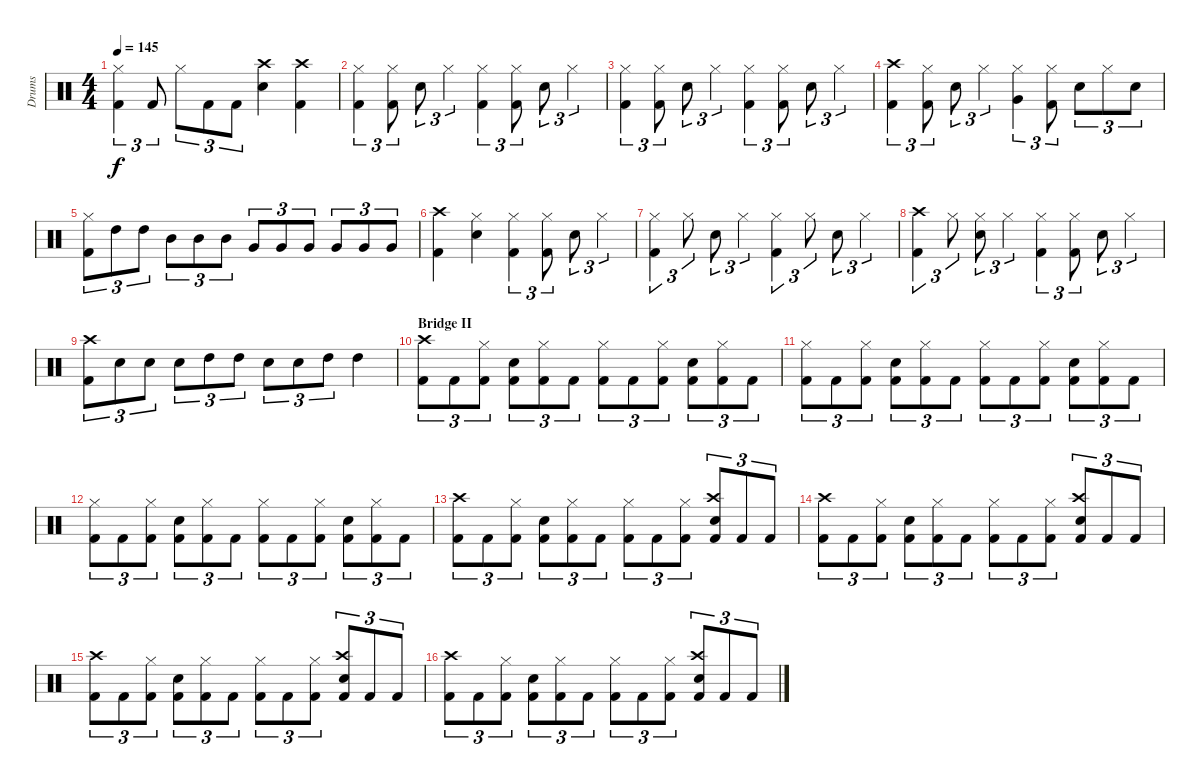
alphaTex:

\track ("Drums" "Drums") {instrument percussion}
\staff {score}
\articulation defaults
\ts (4 4)
\tempo 145
\clef neutral
\ks c
("Hi-Hat (closed)" "Kick (hit) 2").4{tu (3 2) dy f} "Kick (hit) 2".8{tu (3 2)} "Hi-Hat (closed)".8{tu (3 2)} "Kick (hit) 2".8{tu (3 2)} "Kick (hit) 2".8{tu (3 2)} ("Crash high (hit)" "Snare (hit) 2").4 ("Crash high (hit)" "Kick (hit) 2").4 |
("Hi-Hat (closed)" "Kick (hit) 2").4{tu (3 2)} ("Hi-Hat (closed)" "Kick (hit) 2").8{tu (3 2)} "Snare (hit) 2".8{tu (3 2)} "Hi-Hat (closed)".4{tu (3 2)} ("Hi-Hat (closed)" "Kick (hit) 2").4{tu (3 2)} ("Hi-Hat (closed)" "Kick (hit) 2").8{tu (3 2)} "Snare (hit) 2".8{tu (3 2)} "Hi-Hat (closed)".4{tu (3 2)} |
("Hi-Hat (closed)" "Kick (hit) 2").4{tu (3 2)} ("Hi-Hat (closed)" "Kick (hit) 2").8{tu (3 2)} "Snare (hit) 2".8{tu (3 2)} "Hi-Hat (closed)".4{tu (3 2)} ("Hi-Hat (closed)" "Kick (hit) 2").4{tu (3 2)} ("Hi-Hat (closed)" "Kick (hit) 2").8{tu (3 2)} "Snare (hit) 2".8{tu (3 2)} "Hi-Hat (closed)".4{tu (3 2)} |
("Crash high (hit)" "Kick (hit) 2").4{tu (3 2)} ("Hi-Hat (closed)" "Kick (hit) 2").8{tu (3 2)} "Snare (hit) 2".8{tu (3 2)} "Hi-Hat (closed)".4{tu (3 2)} ("Hi-Hat (closed)" "Very Low Tom (hit)").4{tu (3 2)} ("Hi-Hat (closed)" "Kick (hit) 2").8{tu (3 2)} "Snare (hit) 2".8{tu (3 2)} "Hi-Hat (closed)".8{tu (3 2)} "Snare (hit) 2".8{tu (3 2)} |
("Hi-Hat (closed)" "Kick (hit) 2").8{tu (3 2)} "High Tom (hit)".8{tu (3 2)} "High Tom (hit)".8{tu (3 2)} "Mid Tom (hit)".8{tu (3 2)} "Mid Tom (hit)".8{tu (3 2)} "Mid Tom (hit)".8{tu (3 2)} "Very Low Tom (hit)".8{tu (3 2)} "Very Low Tom (hit)".8{tu (3 2)} "Very Low Tom (hit)".8{tu (3 2)} "Very Low Tom (hit)".8{tu (3 2)} "Very Low Tom (hit)".8{tu (3 2)} "Very Low Tom (hit)".8{tu (3 2)} |
("Crash high (hit)" "Kick (hit) 2").4 ("Hi-Hat (closed)" "Snare (hit) 2").4 ("Hi-Hat (closed)" "Kick (hit) 2").4{tu (3 2)} ("Hi-Hat (closed)" "Kick (hit) 2").8{tu (3 2)} "Snare (hit) 2".8{tu (3 2)} "Hi-Hat (closed)".4{tu (3 2)} |
("Kick (hit) 2" "Hi-Hat (closed)").4{tu (3 2)} "Hi-Hat (closed)".8{tu (3 2)} "Snare (hit) 2".8{tu (3 2)} "Hi-Hat (closed)".4{tu (3 2)} ("Hi-Hat (closed)" "Kick (hit) 2").4{tu (3 2)} "Hi-Hat (closed)".8{tu (3 2)} "Snare (hit) 2".8{tu (3 2)} "Hi-Hat (closed)".4{tu (3 2)} |
("Crash high (hit)" "Kick (hit) 2").4{tu (3 2)} "Hi-Hat (closed)".8{tu (3 2)} ("Hi-Hat (closed)" "Snare (hit) 2").8{tu (3 2)} "Hi-Hat (closed)".4{tu (3 2)} ("Hi-Hat (closed)" "Kick (hit) 2").4{tu (3 2)} ("Hi-Hat (closed)" "Kick (hit) 2").8{tu (3 2)} "Snare (hit) 2".8{tu (3 2)} "Hi-Hat (closed)".4{tu (3 2)} |
("Crash high (hit)" "Kick (hit) 2").8{tu (3 2)} "Snare (hit) 2".8{tu (3 2)} "Snare (hit) 2".8{tu (3 2)} "Snare (hit) 2".8{tu (3 2)} "High Tom (hit)".8{tu (3 2)} "High Tom (hit)".8{tu (3 2)} "Snare (hit) 2".8{tu (3 2)} "Snare (hit) 2".8{tu (3 2)} "High Tom (hit)".8{tu (3 2)} "High Tom (hit)".4 |
\section ("" "Bridge II")
("Crash high (hit)" "Kick (hit) 2").8{tu (3 2)} "Kick (hit) 2".8{tu (3 2)} ("Hi-Hat (closed)" "Kick (hit) 2").8{tu (3 2)} ("Snare (hit) 2" "Kick (hit) 2").8{tu (3 2)} ("Hi-Hat (closed)" "Kick (hit) 2").8{tu (3 2)} "Kick (hit) 2".8{tu (3 2)} ("Hi-Hat (closed)" "Kick (hit) 2").8{tu (3 2)} "Kick (hit) 2".8{tu (3 2)} ("Hi-Hat (closed)" "Kick (hit) 2").8{tu (3 2)} ("Snare (hit) 2" "Kick (hit) 2").8{tu (3 2)} ("Hi-Hat (closed)" "Kick (hit) 2").8{tu (3 2)} "Kick (hit) 2".8{tu (3 2)} |
("Kick (hit) 2" "Hi-Hat (closed)").8{tu (3 2)} "Kick (hit) 2".8{tu (3 2)} ("Hi-Hat (closed)" "Kick (hit) 2").8{tu (3 2)} ("Snare (hit) 2" "Kick (hit) 2").8{tu (3 2)} ("Hi-Hat (closed)" "Kick (hit) 2").8{tu (3 2)} "Kick (hit) 2".8{tu (3 2)} ("Hi-Hat (closed)" "Kick (hit) 2").8{tu (3 2)} "Kick (hit) 2".8{tu (3 2)} ("Hi-Hat (closed)" "Kick (hit) 2").8{tu (3 2)} ("Snare (hit) 2" "Kick (hit) 2").8{tu (3 2)} ("Hi-Hat (closed)" "Kick (hit) 2").8{tu (3 2)} "Kick (hit) 2".8{tu (3 2)} |
("Kick (hit) 2" "Hi-Hat (closed)").8{tu (3 2)} "Kick (hit) 2".8{tu (3 2)} ("Hi-Hat (closed)" "Kick (hit) 2").8{tu (3 2)} ("Snare (hit) 2" "Kick (hit) 2").8{tu (3 2)} ("Hi-Hat (closed)" "Kick (hit) 2").8{tu (3 2)} "Kick (hit) 2".8{tu (3 2)} ("Hi-Hat (closed)" "Kick (hit) 2").8{tu (3 2)} "Kick (hit) 2".8{tu (3 2)} ("Hi-Hat (closed)" "Kick (hit) 2").8{tu (3 2)} ("Snare (hit) 2" "Kick (hit) 2").8{tu (3 2)} ("Hi-Hat (closed)" "Kick (hit) 2").8{tu (3 2)} "Kick (hit) 2".8{tu (3 2)} |
("Crash high (hit)" "Kick (hit) 2").8{tu (3 2)} "Kick (hit) 2".8{tu (3 2)} ("Hi-Hat (closed)" "Kick (hit) 2").8{tu (3 2)} ("Snare (hit) 2" "Kick (hit) 2").8{tu (3 2)} ("Hi-Hat (closed)" "Kick (hit) 2").8{tu (3 2)} "Kick (hit) 2".8{tu (3 2)} ("Hi-Hat (closed)" "Kick (hit) 2").8{tu (3 2)} "Kick (hit) 2".8{tu (3 2)} ("Hi-Hat (closed)" "Kick (hit) 2").8{tu (3 2)} ("Crash high (hit)" "Snare (hit) 2" "Kick (hit) 2").8{tu (3 2)} "Kick (hit) 2".8{tu (3 2)} "Kick (hit) 2".8{tu (3 2)} |
("Crash high (hit)" "Kick (hit) 2").8{tu (3 2)} "Kick (hit) 2".8{tu (3 2)} ("Hi-Hat (closed)" "Kick (hit) 2").8{tu (3 2)} ("Snare (hit) 2" "Kick (hit) 2").8{tu (3 2)} ("Hi-Hat (closed)" "Kick (hit) 2").8{tu (3 2)} "Kick (hit) 2".8{tu (3 2)} ("Hi-Hat (closed)" "Kick (hit) 2").8{tu (3 2)} "Kick (hit) 2".8{tu (3 2)} ("Hi-Hat (closed)" "Kick (hit) 2").8{tu (3 2)} ("Crash high (hit)" "Snare (hit) 2" "Kick (hit) 2").8{tu (3 2)} "Kick (hit) 2".8{tu (3 2)} "Kick (hit) 2".8{tu (3 2)} |
("Crash high (hit)" "Kick (hit) 2").8{tu (3 2)} "Kick (hit) 2".8{tu (3 2)} ("Hi-Hat (closed)" "Kick (hit) 2").8{tu (3 2)} ("Snare (hit) 2" "Kick (hit) 2").8{tu (3 2)} ("Hi-Hat (closed)" "Kick (hit) 2").8{tu (3 2)} "Kick (hit) 2".8{tu (3 2)} ("Hi-Hat (closed)" "Kick (hit) 2").8{tu (3 2)} "Kick (hit) 2".8{tu (3 2)} ("Hi-Hat (closed)" "Kick (hit) 2").8{tu (3 2)} ("Crash high (hit)" "Snare (hit) 2" "Kick (hit) 2").8{tu (3 2)} "Kick (hit) 2".8{tu (3 2)} "Kick (hit) 2".8{tu (3 2)} |
("Crash high (hit)" "Kick (hit) 2").8{tu (3 2)} "Kick (hit) 2".8{tu (3 2)} ("Hi-Hat (closed)" "Kick (hit) 2").8{tu (3 2)} ("Snare (hit) 2" "Kick (hit) 2").8{tu (3 2)} ("Hi-Hat (closed)" "Kick (hit) 2").8{tu (3 2)} "Kick (hit) 2".8{tu (3 2)} ("Hi-Hat (closed)" "Kick (hit) 2").8{tu (3 2)} "Kick (hit) 2".8{tu (3 2)} ("Hi-Hat (closed)" "Kick (hit) 2").8{tu (3 2)} ("Crash high (hit)" "Snare (hit) 2" "Kick (hit) 2").8{tu (3 2)} "Kick (hit) 2".8{tu (3 2)} "Kick (hit) 2".8{tu (3 2)}
